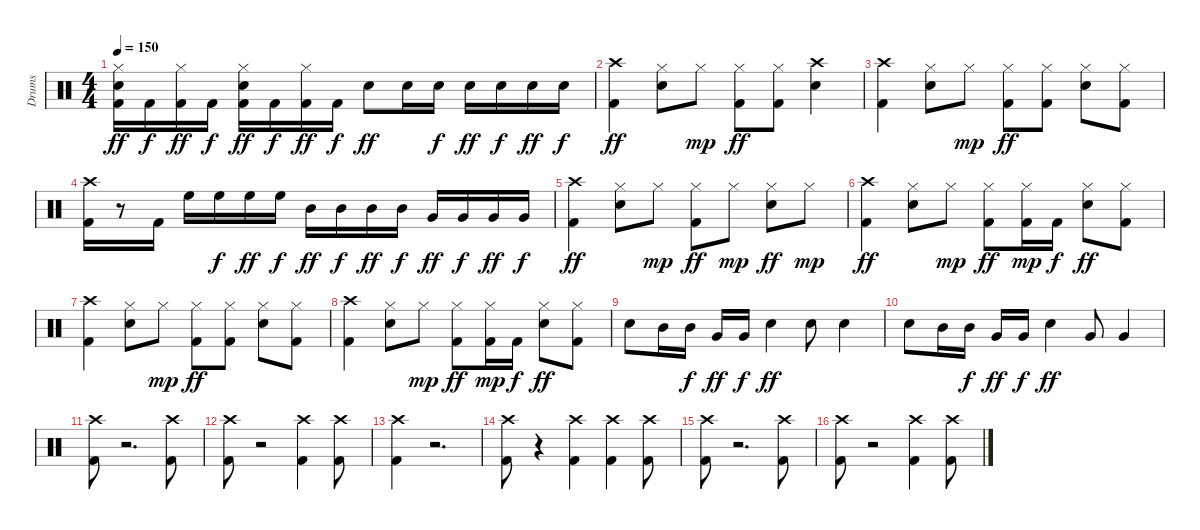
\track ("Drums" "Drums") {instrument percussion}
\staff {score}
\articulation defaults
\ts (4 4)
\tempo 150
\clef neutral
\ks c
("Kick (hit) 2" "Snare (hit) 2" "Hi-Hat (closed)").16{dy ff} "Kick (hit) 2".16{dy f} ("Hi-Hat (closed)" "Kick (hit) 2").16{dy ff} "Kick (hit) 2".16{dy f} ("Kick (hit) 2" "Snare (hit) 2" "Hi-Hat (closed)").16{dy ff} "Kick (hit) 2".16{dy f} ("Hi-Hat (closed)" "Kick (hit) 2").16{dy ff} "Kick (hit) 2".16{dy f} "Snare (hit) 2".8{dy ff} "Snare (hit) 2".16 "Snare (hit) 2".16{dy f} "Snare (hit) 2".16{dy ff} "Snare (hit) 2".16{dy f} "Snare (hit) 2".16{dy ff} "Snare (hit) 2".16{dy f} |
("Crash high (hit)" "Kick (hit) 2").4{dy ff} ("Hi-Hat (closed)" "Snare (hit) 2").8 "Hi-Hat (closed)".8{dy mp} ("Hi-Hat (closed)" "Kick (hit) 2").8{dy ff} ("Hi-Hat (closed)" "Kick (hit) 2").8 ("Crash high (hit)" "Snare (hit) 2").4 |
("Crash high (hit)" "Kick (hit) 2").4 ("Hi-Hat (closed)" "Snare (hit) 2").8 "Hi-Hat (closed)".8{dy mp} ("Hi-Hat (closed)" "Kick (hit) 2").8{dy ff} ("Hi-Hat (closed)" "Kick (hit) 2").8 ("Hi-Hat (closed)" "Snare (hit) 2").8 ("Hi-Hat (closed)" "Kick (hit) 2").8 |
("Crash high (hit)" "Kick (hit) 2").16 r.8 "Kick (hit) 2".16 "High Floor Tom (hit)".16 "High Floor Tom (hit)".16{dy f} "High Floor Tom (hit)".16{dy ff} "High Floor Tom (hit)".16{dy f} "Mid Tom (hit)".16{dy ff} "Mid Tom (hit)".16{dy f} "Mid Tom (hit)".16{dy ff} "Mid Tom (hit)".16{dy f} "Very Low Tom (hit)".16{dy ff} "Very Low Tom (hit)".16{dy f} "Very Low Tom (hit)".16{dy ff} "Very Low Tom (hit)".16{dy f} |
("Crash high (hit)" "Kick (hit) 2").4{dy ff} ("Hi-Hat (closed)" "Snare (hit) 2").8 "Hi-Hat (closed)".8{dy mp} ("Kick (hit) 2" "Hi-Hat (closed)").8{dy ff} "Hi-Hat (closed)".8{dy mp} ("Hi-Hat (closed)" "Snare (hit) 2").8{dy ff} "Hi-Hat (closed)".8{dy mp} |
("Crash high (hit)" "Kick (hit) 2").4{dy ff} ("Hi-Hat (closed)" "Snare (hit) 2").8 "Hi-Hat (closed)".8{dy mp} ("Hi-Hat (closed)" "Kick (hit) 2").8{dy ff} ("Kick (hit) 2" "Hi-Hat (closed)").16{dy mp} "Kick (hit) 2".16{dy f} ("Hi-Hat (closed)" "Snare (hit) 2").8{dy ff} ("Hi-Hat (closed)" "Kick (hit) 2").8 |
("Crash high (hit)" "Kick (hit) 2").4 ("Hi-Hat (closed)" "Snare (hit) 2").8 "Hi-Hat (closed)".8{dy mp} ("Hi-Hat (closed)" "Kick (hit) 2").8{dy ff} ("Hi-Hat (closed)" "Kick (hit) 2").8 ("Hi-Hat (closed)" "Snare (hit) 2").8 ("Hi-Hat (closed)" "Kick (hit) 2").8 |
("Crash high (hit)" "Kick (hit) 2").4 ("Hi-Hat (closed)" "Snare (hit) 2").8 "Hi-Hat (closed)".8{dy mp} ("Hi-Hat (closed)" "Kick (hit) 2").8{dy ff} ("Kick (hit) 2" "Hi-Hat (closed)").16{dy mp} "Kick (hit) 2".16{dy f} ("Hi-Hat (closed)" "Snare (hit) 2").8{dy ff} ("Hi-Hat (closed)" "Kick (hit) 2").8 |
"Snare (hit) 2".8 "Mid Tom (hit)".16 "Mid Tom (hit)".16{dy f} "Very Low Tom (hit)".16{dy ff} "Very Low Tom (hit)".16{dy f} "Snare (hit) 2".4{dy ff} "Snare (hit) 2".8 "Snare (hit) 2".4 |
"Snare (hit) 2".8 "Mid Tom (hit)".16 "Mid Tom (hit)".16{dy f} "Very Low Tom (hit)".16{dy ff} "Very Low Tom (hit)".16{dy f} "Snare (hit) 2".4{dy ff} "Very Low Tom (hit)".8 "Very Low Tom (hit)".4 |
("Crash high (hit)" "Kick (hit) 2").8 r.2{d} ("Kick (hit) 2" "Crash high (hit)").8 |
("Crash high (hit)" "Kick (hit) 2").8 r.2 ("Kick (hit) 2" "Crash high (hit)").4 ("Kick (hit) 2" "Crash high (hit)").8 |
("Crash high (hit)" "Kick (hit) 2").4 r.2{d} |
("Crash high (hit)" "Kick (hit) 2").8 r.4 ("Kick (hit) 2" "Crash high (hit)").4 ("Kick (hit) 2" "Crash high (hit)").4 ("Kick (hit) 2" "Crash high (hit)").8 |
("Crash high (hit)" "Kick (hit) 2").8 r.2{d} ("Kick (hit) 2" "Crash high (hit)").8 |
("Crash high (hit)" "Kick (hit) 2").8 r.2 ("Kick (hit) 2" "Crash high (hit)").4 ("Kick (hit) 2" "Crash high (hit)").8
